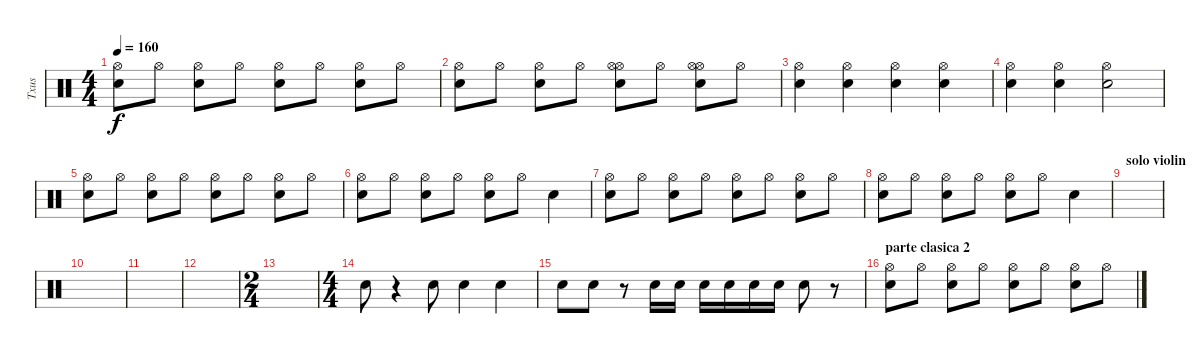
\track ("Txus" "Txus") {instrument percussion}
\staff {score}
\articulation defaults
\ts (4 4)
\tempo 160
\clef neutral
\ks c
("Hi-Hat (open)" "Snare (hit) 2").8{dy f} "Hi-Hat (open)".8 ("Hi-Hat (open)" "Snare (hit) 2").8 "Hi-Hat (open)".8 ("Hi-Hat (open)" "Snare (hit) 2").8 "Hi-Hat (open)".8 ("Hi-Hat (open)" "Snare (hit) 2").8 "Hi-Hat (open)".8 |
("Hi-Hat (open)" "Snare (hit) 2").8 "Hi-Hat (open)".8 ("Hi-Hat (open)" "Snare (hit) 2").8 "Hi-Hat (open)".8 ("Hi-Hat (open)" "Snare (hit) 2" "Hi-Hat (open)").8 "Hi-Hat (open)".8 ("Hi-Hat (open)" "Snare (hit) 2" "Hi-Hat (open)").8 "Hi-Hat (open)".8 |
("Snare (hit) 2" "Hi-Hat (open)").4 ("Snare (hit) 2" "Hi-Hat (open)").4 ("Snare (hit) 2" "Hi-Hat (open)").4 ("Snare (hit) 2" "Hi-Hat (open)").4 |
("Hi-Hat (open)" "Snare (hit) 2").4 ("Hi-Hat (open)" "Snare (hit) 2").4 ("Hi-Hat (open)" "Snare (hit) 2").2 |
("Snare (hit) 2" "Hi-Hat (open)").8 "Hi-Hat (open)".8 ("Snare (hit) 2" "Hi-Hat (open)").8 "Hi-Hat (open)".8 ("Snare (hit) 2" "Hi-Hat (open)").8 "Hi-Hat (open)".8 ("Snare (hit) 2" "Hi-Hat (open)").8 "Hi-Hat (open)".8 |
("Hi-Hat (open)" "Snare (hit) 2").8 "Hi-Hat (open)".8 ("Hi-Hat (open)" "Snare (hit) 2").8 "Hi-Hat (open)".8 ("Hi-Hat (open)" "Snare (hit) 2").8 "Hi-Hat (open)".8 "Snare (hit) 2".4 |
("Snare (hit) 2" "Hi-Hat (open)").8 "Hi-Hat (open)".8 ("Snare (hit) 2" "Hi-Hat (open)").8 "Hi-Hat (open)".8 ("Snare (hit) 2" "Hi-Hat (open)").8 "Hi-Hat (open)".8 ("Snare (hit) 2" "Hi-Hat (open)").8 "Hi-Hat (open)".8 |
("Hi-Hat (open)" "Snare (hit) 2").8 "Hi-Hat (open)".8 ("Hi-Hat (open)" "Snare (hit) 2").8 "Hi-Hat (open)".8 ("Hi-Hat (open)" "Snare (hit) 2").8 "Hi-Hat (open)".8 "Snare (hit) 2".4 |
\section ("" "solo violin")
|
|
|
|
\ts (2 4)
|
\ts (4 4)
"Snare (hit) 2".8 r.4 "Snare (hit) 2".8 "Snare (hit) 2".4 "Snare (hit) 2".4 |
"Snare (hit) 2".8 "Snare (hit) 2".8 r.8 "Snare (hit) 2".16 "Snare (hit) 2".16 "Snare (hit) 2".16 "Snare (hit) 2".16 "Snare (hit) 2".16 "Snare (hit) 2".16 "Snare (hit) 2".8 r.8 |
\section ("" "parte clasica 2")
("Hi-Hat (open)" "Snare (hit) 2").8 "Hi-Hat (open)".8 ("Hi-Hat (open)" "Snare (hit) 2").8 "Hi-Hat (open)".8 ("Hi-Hat (open)" "Snare (hit) 2").8 "Hi-Hat (open)".8 ("Hi-Hat (open)" "Snare (hit) 2").8 "Hi-Hat (open)".8
